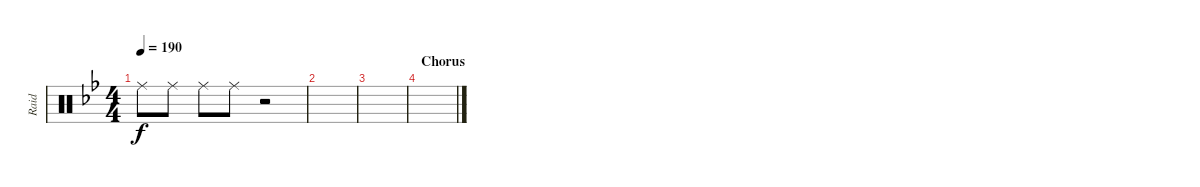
\track ("Raid" "Raid") {instrument percussion}
\staff {score}
\articulation defaults
\ts (4 4)
\tempo 190
\clef neutral
\ks bb "Ride (middle)".8{dy f} "Ride (middle)".8 "Ride (middle)".8 "Ride (middle)".8
r.2 |
|
|
\section ("" "Chorus")
